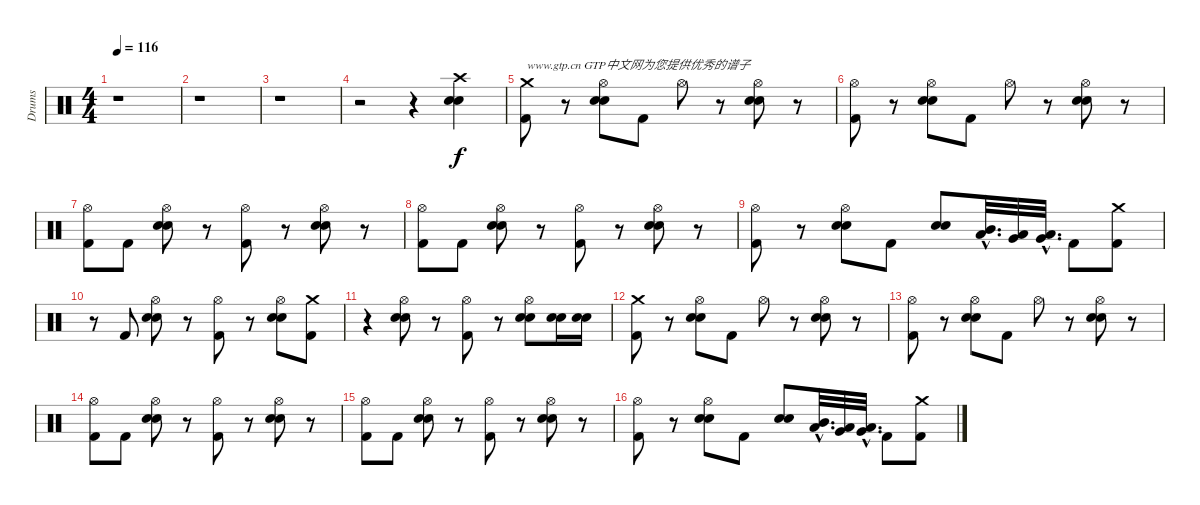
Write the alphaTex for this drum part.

\track ("Drums" "Drums") {instrument percussion}
\staff {score}
\articulation defaults
\ts (4 4)
\tempo 116
\clef neutral
\ks c
r.1{dy f} |
r.1 |
r.1 |
r.2 r.4 ("Crash high (hit)" "Snare (hit) 2" "Electric Snare (hit)").4 |
("Crash medium (hit)" "Kick (hit) 2").8{txt "www.gtp.cn GTP中文网为您提供优秀的谱子"} r.8 ("Hi-Hat (open)" "Snare (hit) 2" "Electric Snare (hit)").8 "Kick (hit) 2".8 "Hi-Hat (open)".8 r.8 ("Hi-Hat (open)" "Snare (hit) 2" "Electric Snare (hit)").8 r.8 |
("Hi-Hat (open)" "Kick (hit) 2").8 r.8 ("Hi-Hat (open)" "Snare (hit) 2" "Electric Snare (hit)").8 "Kick (hit) 2".8 "Hi-Hat (open)".8 r.8 ("Hi-Hat (open)" "Snare (hit) 2" "Electric Snare (hit)").8 r.8 |
("Hi-Hat (open)" "Kick (hit) 2").8 "Kick (hit) 2".8 ("Hi-Hat (open)" "Snare (hit) 2" "Electric Snare (hit)").8 r.8 ("Kick (hit) 2" "Hi-Hat (open)").8 r.8 ("Hi-Hat (open)" "Snare (hit) 2" "Electric Snare (hit)").8 r.8 |
("Hi-Hat (open)" "Kick (hit) 2").8 "Kick (hit) 2".8 ("Hi-Hat (open)" "Snare (hit) 2" "Electric Snare (hit)").8 r.8 ("Kick (hit) 2" "Hi-Hat (open)").8 r.8 ("Hi-Hat (open)" "Snare (hit) 2" "Electric Snare (hit)").8 r.8 |
("Hi-Hat (open)" "Kick (hit) 2").8 r.8 ("Hi-Hat (open)" "Snare (hit) 2" "Electric Snare (hit)").8 "Kick (hit) 2".8 ("Electric Snare (hit)" "Snare (hit) 2").8 ("Mid Tom (hit)"{hac} "Low Tom (hit)"{hac}).32{d} ("Low Tom (hit)" "Very Low Tom (hit)").32 ("Low Tom (hit)"{hac} "Very Low Tom (hit)"{hac}).32{d} "Kick (hit) 2".8 ("Crash medium (hit)" "Kick (hit) 2").8 |
r.8 "Kick (hit) 2".8 ("Hi-Hat (open)" "Snare (hit) 2" "Electric Snare (hit)").8 r.8 ("Kick (hit) 2" "Hi-Hat (open)").8 r.8 ("Hi-Hat (open)" "Snare (hit) 2" "Electric Snare (hit)").8 ("Crash medium (hit)" "Kick (hit) 2").8 |
r.4 ("Hi-Hat (open)" "Snare (hit) 2" "Electric Snare (hit)").8 r.8 ("Hi-Hat (open)" "Kick (hit) 2").8 r.8 ("Hi-Hat (open)" "Electric Snare (hit)" "Snare (hit) 2").8 ("Snare (hit) 2" "Electric Snare (hit)").16 ("Snare (hit) 2" "Electric Snare (hit)").16 |
("Crash medium (hit)" "Kick (hit) 2").8 r.8 ("Hi-Hat (open)" "Snare (hit) 2" "Electric Snare (hit)").8 "Kick (hit) 2".8 "Hi-Hat (open)".8 r.8 ("Hi-Hat (open)" "Snare (hit) 2" "Electric Snare (hit)").8 r.8 |
("Hi-Hat (open)" "Kick (hit) 2").8 r.8 ("Hi-Hat (open)" "Snare (hit) 2" "Electric Snare (hit)").8 "Kick (hit) 2".8 "Hi-Hat (open)".8 r.8 ("Hi-Hat (open)" "Snare (hit) 2" "Electric Snare (hit)").8 r.8 |
("Hi-Hat (open)" "Kick (hit) 2").8 "Kick (hit) 2".8 ("Hi-Hat (open)" "Snare (hit) 2" "Electric Snare (hit)").8 r.8 ("Kick (hit) 2" "Hi-Hat (open)").8 r.8 ("Hi-Hat (open)" "Snare (hit) 2" "Electric Snare (hit)").8 r.8 |
("Hi-Hat (open)" "Kick (hit) 2").8 "Kick (hit) 2".8 ("Hi-Hat (open)" "Snare (hit) 2" "Electric Snare (hit)").8 r.8 ("Kick (hit) 2" "Hi-Hat (open)").8 r.8 ("Hi-Hat (open)" "Snare (hit) 2" "Electric Snare (hit)").8 r.8 |
("Hi-Hat (open)" "Kick (hit) 2").8 r.8 ("Hi-Hat (open)" "Snare (hit) 2" "Electric Snare (hit)").8 "Kick (hit) 2".8 ("Electric Snare (hit)" "Snare (hit) 2").8 ("Mid Tom (hit)"{hac} "Low Tom (hit)"{hac}).32{d} ("Low Tom (hit)" "Very Low Tom (hit)").32 ("Low Tom (hit)"{hac} "Very Low Tom (hit)"{hac}).32{d} "Kick (hit) 2".8 ("Crash medium (hit)" "Kick (hit) 2").8
